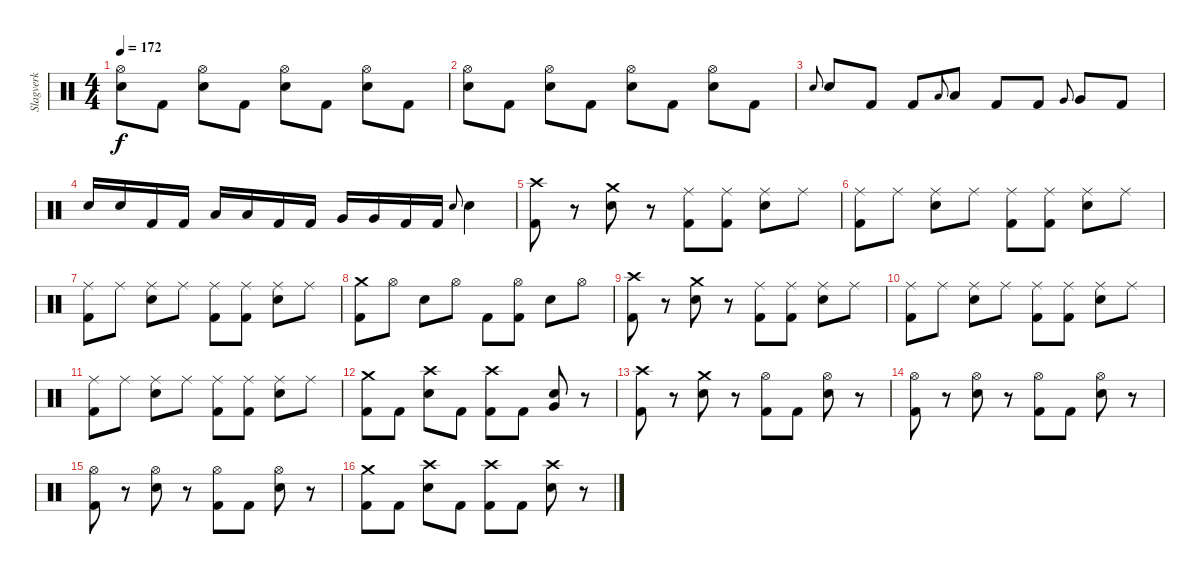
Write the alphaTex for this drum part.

\track ("Slagverk" "Slagverk") {instrument percussion}
\staff {score}
\articulation defaults
\ts (4 4)
\tempo 172
\clef neutral
\ks c
("Hi-Hat (open)" "Electric Snare (hit)").8{dy f} "Kick (hit) 2".8 ("Hi-Hat (open)" "Electric Snare (hit)").8 "Kick (hit) 2".8 ("Hi-Hat (open)" "Electric Snare (hit)").8 "Kick (hit) 2".8 ("Hi-Hat (open)" "Electric Snare (hit)").8 "Kick (hit) 2".8 |
("Hi-Hat (open)" "Electric Snare (hit)").8 "Kick (hit) 2".8 ("Hi-Hat (open)" "Electric Snare (hit)").8 "Kick (hit) 2".8 ("Hi-Hat (open)" "Electric Snare (hit)").8 "Kick (hit) 2".8 ("Hi-Hat (open)" "Electric Snare (hit)").8 "Kick (hit) 2".8 |
"Electric Snare (hit)".8{gr onbeat} "Electric Snare (hit)".8 "Kick (hit) 2".8 "Kick (hit) 2".8 "Low Tom (hit)".8{gr onbeat} "Low Tom (hit)".8 "Kick (hit) 2".8 "Kick (hit) 2".8 "Very Low Tom (hit)".8{gr onbeat} "Very Low Tom (hit)".8 "Kick (hit) 2".8 |
"Electric Snare (hit)".16 "Electric Snare (hit)".16 "Kick (hit) 2".16 "Kick (hit) 2".16 "Low Tom (hit)".16 "Low Tom (hit)".16 "Kick (hit) 2".16 "Kick (hit) 2".16 "Very Low Tom (hit)".16 "Very Low Tom (hit)".16 "Kick (hit) 2".16 "Kick (hit) 2".16 "Electric Snare (hit)".8{gr onbeat} "Electric Snare (hit)".4 |
("Crash high (hit)" "Kick (hit) 2").8 r.8 ("Crash medium (hit)" "Electric Snare (hit)").8 r.8 ("Ride (middle)" "Kick (hit) 2").8 ("Ride (middle)" "Kick (hit) 2").8 ("Ride (middle)" "Electric Snare (hit)").8 "Ride (middle)".8 |
("Ride (middle)" "Kick (hit) 2").8 "Ride (middle)".8 ("Ride (middle)" "Electric Snare (hit)").8 "Ride (middle)".8 ("Ride (middle)" "Kick (hit) 2").8 ("Ride (middle)" "Kick (hit) 2").8 ("Ride (middle)" "Electric Snare (hit)").8 "Ride (middle)".8 |
("Ride (middle)" "Kick (hit) 2").8 "Ride (middle)".8 ("Ride (middle)" "Electric Snare (hit)").8 "Ride (middle)".8 ("Ride (middle)" "Kick (hit) 2").8 ("Ride (middle)" "Kick (hit) 2").8 ("Ride (middle)" "Electric Snare (hit)").8 "Ride (middle)".8 |
("Crash medium (hit)" "Kick (hit) 2").8 "Hi-Hat (open)".8 "Electric Snare (hit)".8 "Hi-Hat (open)".8 "Kick (hit) 2".8 ("Hi-Hat (open)" "Kick (hit) 2").8 "Electric Snare (hit)".8 "Hi-Hat (open)".8 |
("Crash high (hit)" "Kick (hit) 2").8 r.8 ("Crash medium (hit)" "Electric Snare (hit)").8 r.8 ("Ride (middle)" "Kick (hit) 2").8 ("Ride (middle)" "Kick (hit) 2").8 ("Ride (middle)" "Electric Snare (hit)").8 "Ride (middle)".8 |
("Ride (middle)" "Kick (hit) 2").8 "Ride (middle)".8 ("Ride (middle)" "Electric Snare (hit)").8 "Ride (middle)".8 ("Ride (middle)" "Kick (hit) 2").8 ("Ride (middle)" "Kick (hit) 2").8 ("Ride (middle)" "Electric Snare (hit)").8 "Ride (middle)".8 |
("Ride (middle)" "Kick (hit) 2").8 "Ride (middle)".8 ("Ride (middle)" "Electric Snare (hit)").8 "Ride (middle)".8 ("Ride (middle)" "Kick (hit) 2").8 ("Ride (middle)" "Kick (hit) 2").8 ("Ride (middle)" "Electric Snare (hit)").8 "Ride (middle)".8 |
("Crash medium (hit)" "Kick (hit) 2").8 "Kick (hit) 2".8 ("Crash high (hit)" "Electric Snare (hit)").8 "Kick (hit) 2".8 ("Crash high (hit)" "Kick (hit) 2").8 "Kick (hit) 2".8 ("Very Low Tom (hit)" "Electric Snare (hit)").8 r.8 |
("Crash high (hit)" "Kick (hit) 2").8 r.8 ("Crash medium (hit)" "Electric Snare (hit)").8 r.8 ("Hi-Hat (open)" "Kick (hit) 2").8 "Kick (hit) 2".8 ("Hi-Hat (open)" "Electric Snare (hit)").8 r.8 |
("Hi-Hat (open)" "Kick (hit) 2").8 r.8 ("Hi-Hat (open)" "Electric Snare (hit)").8 r.8 ("Hi-Hat (open)" "Kick (hit) 2").8 "Kick (hit) 2".8 ("Hi-Hat (open)" "Electric Snare (hit)").8 r.8 |
("Hi-Hat (open)" "Kick (hit) 2").8 r.8 ("Hi-Hat (open)" "Electric Snare (hit)").8 r.8 ("Hi-Hat (open)" "Kick (hit) 2").8 "Kick (hit) 2".8 ("Hi-Hat (open)" "Electric Snare (hit)").8 r.8 |
("Crash medium (hit)" "Kick (hit) 2").8 "Kick (hit) 2".8 ("Crash high (hit)" "Electric Snare (hit)").8 "Kick (hit) 2".8 ("Crash high (hit)" "Kick (hit) 2").8 "Kick (hit) 2".8 ("Crash high (hit)" "Electric Snare (hit)").8 r.8
